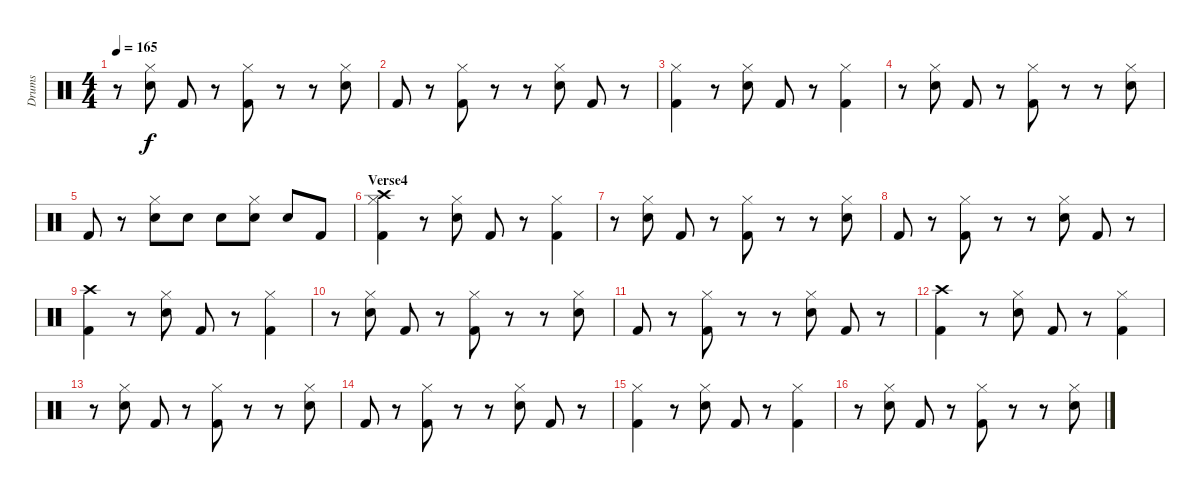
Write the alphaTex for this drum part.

\track ("Drums" "Drums") {instrument percussion}
\staff {score}
\articulation defaults
\ts (4 4)
\tempo 165
\clef neutral
\ks c
r.8{dy f} ("Electric Snare (hit)" "Hi-Hat (closed)").8 "Kick (hit) 2".8 r.8 ("Kick (hit) 2" "Hi-Hat (closed)").8 r.8 r.8 ("Hi-Hat (closed)" "Electric Snare (hit)").8 |
\section ("" "")
"Kick (hit) 2".8 r.8 ("Hi-Hat (closed)" "Kick (hit) 2").8 r.8 r.8 ("Hi-Hat (closed)" "Electric Snare (hit)").8 "Kick (hit) 2".8 r.8 |
\section ("" "")
("Kick (hit) 2" "Hi-Hat (closed)").4 r.8 ("Electric Snare (hit)" "Hi-Hat (closed)").8 "Kick (hit) 2".8 r.8 ("Kick (hit) 2" "Hi-Hat (closed)").4 |
r.8 ("Electric Snare (hit)" "Hi-Hat (closed)").8 "Kick (hit) 2".8 r.8 ("Kick (hit) 2" "Hi-Hat (closed)").8 r.8 r.8 ("Hi-Hat (closed)" "Electric Snare (hit)").8 |
"Kick (hit) 2".8 r.8 ("Hi-Hat (closed)" "Electric Snare (hit)").8 "Electric Snare (hit)".8 "Electric Snare (hit)".8 ("Hi-Hat (closed)" "Electric Snare (hit)").8 "Electric Snare (hit)".8 "Kick (hit) 2".8 |
\section ("" "Verse4")
("Kick (hit) 2" "Hi-Hat (closed)" "Crash high (hit)").4 r.8 ("Electric Snare (hit)" "Hi-Hat (closed)").8 "Kick (hit) 2".8 r.8 ("Kick (hit) 2" "Hi-Hat (closed)").4 |
r.8 ("Electric Snare (hit)" "Hi-Hat (closed)").8 "Kick (hit) 2".8 r.8 ("Kick (hit) 2" "Hi-Hat (closed)").8 r.8 r.8 ("Hi-Hat (closed)" "Electric Snare (hit)").8 |
"Kick (hit) 2".8 r.8 ("Hi-Hat (closed)" "Kick (hit) 2").8 r.8 r.8 ("Hi-Hat (closed)" "Electric Snare (hit)").8 "Kick (hit) 2".8 r.8 |
("Kick (hit) 2" "Crash high (hit)").4 r.8 ("Electric Snare (hit)" "Hi-Hat (closed)").8 "Kick (hit) 2".8 r.8 ("Kick (hit) 2" "Hi-Hat (closed)").4 |
r.8 ("Electric Snare (hit)" "Hi-Hat (closed)").8 "Kick (hit) 2".8 r.8 ("Kick (hit) 2" "Hi-Hat (closed)").8 r.8 r.8 ("Hi-Hat (closed)" "Electric Snare (hit)").8 |
"Kick (hit) 2".8 r.8 ("Hi-Hat (closed)" "Kick (hit) 2").8 r.8 r.8 ("Hi-Hat (closed)" "Electric Snare (hit)").8 "Kick (hit) 2".8 r.8 |
("Kick (hit) 2" "Crash high (hit)").4 r.8 ("Electric Snare (hit)" "Hi-Hat (closed)").8 "Kick (hit) 2".8 r.8 ("Kick (hit) 2" "Hi-Hat (closed)").4 |
r.8 ("Electric Snare (hit)" "Hi-Hat (closed)").8 "Kick (hit) 2".8 r.8 ("Kick (hit) 2" "Hi-Hat (closed)").8 r.8 r.8 ("Hi-Hat (closed)" "Electric Snare (hit)").8 |
"Kick (hit) 2".8 r.8 ("Hi-Hat (closed)" "Kick (hit) 2").8 r.8 r.8 ("Hi-Hat (closed)" "Electric Snare (hit)").8 "Kick (hit) 2".8 r.8 |
("Kick (hit) 2" "Hi-Hat (closed)").4 r.8 ("Electric Snare (hit)" "Hi-Hat (closed)").8 "Kick (hit) 2".8 r.8 ("Kick (hit) 2" "Hi-Hat (closed)").4 |
r.8 ("Electric Snare (hit)" "Hi-Hat (closed)").8 "Kick (hit) 2".8 r.8 ("Kick (hit) 2" "Hi-Hat (closed)").8 r.8 r.8 ("Hi-Hat (closed)" "Electric Snare (hit)").8
